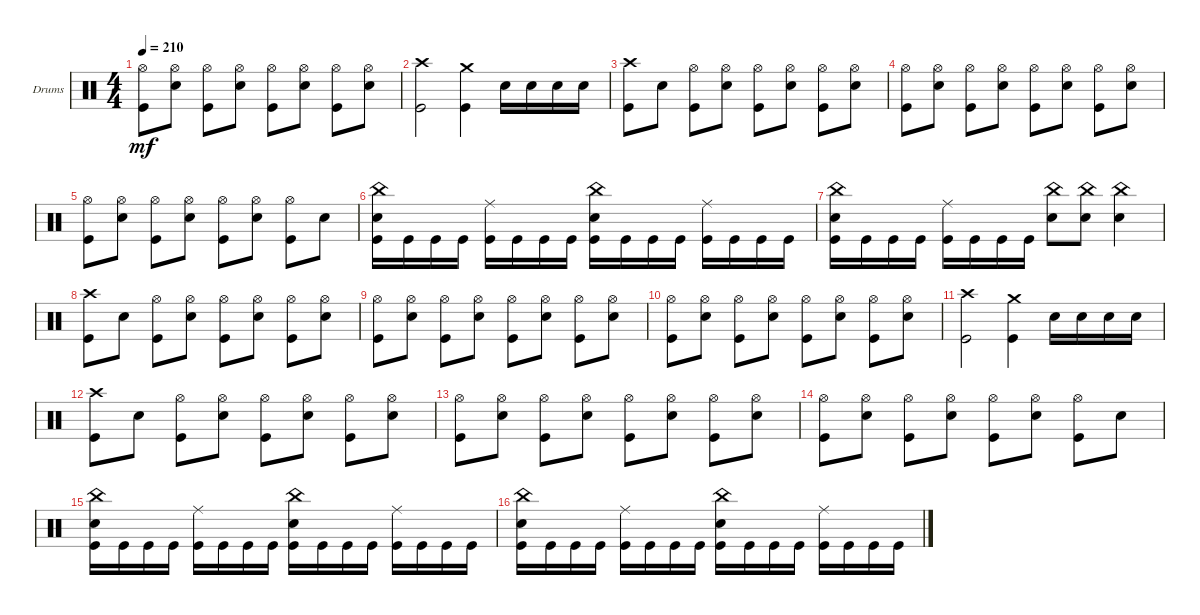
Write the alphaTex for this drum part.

\bracketExtendMode groupsimilarinstruments
\firstSystemTrackNameOrientation horizontal
\otherSystemsTrackNameOrientation horizontal
\track ("Drumkit" "Drums") {instrument percussion}
\staff {score}
\articulation defaults
\ts (4 4)
\tempo 210
\clef neutral
\ks c
("Hi-Hat (open)" "Kick (hit)").8{dy mf} ("Hi-Hat (open)" "Snare (hit) 2").8 ("Hi-Hat (open)" "Kick (hit)").8 ("Hi-Hat (open)" "Snare (hit) 2").8 ("Hi-Hat (open)" "Kick (hit)").8 ("Hi-Hat (open)" "Snare (hit) 2").8 ("Hi-Hat (open)" "Kick (hit)").8 ("Hi-Hat (open)" "Snare (hit) 2").8 |
("Kick (hit)" "Crash high (hit)").2 ("Kick (hit)" "Crash medium (hit)").4 "Snare (hit) 2".16 "Snare (hit) 2".16 "Snare (hit) 2".16 "Snare (hit) 2".16 |
("Kick (hit)" "Crash high (hit)").8 "Snare (hit) 2".8 ("Hi-Hat (open)" "Kick (hit)").8 ("Hi-Hat (open)" "Snare (hit) 2").8 ("Hi-Hat (open)" "Kick (hit)").8 ("Hi-Hat (open)" "Snare (hit) 2").8 ("Hi-Hat (open)" "Kick (hit)").8 ("Hi-Hat (open)" "Snare (hit) 2").8 |
("Hi-Hat (open)" "Kick (hit)").8 ("Hi-Hat (open)" "Snare (hit) 2").8 ("Hi-Hat (open)" "Kick (hit)").8 ("Hi-Hat (open)" "Snare (hit) 2").8 ("Hi-Hat (open)" "Kick (hit)").8 ("Hi-Hat (open)" "Snare (hit) 2").8 ("Hi-Hat (open)" "Kick (hit)").8 ("Hi-Hat (open)" "Snare (hit) 2").8 |
("Hi-Hat (open)" "Kick (hit)").8 ("Hi-Hat (open)" "Snare (hit) 2").8 ("Hi-Hat (open)" "Kick (hit)").8 ("Hi-Hat (open)" "Snare (hit) 2").8 ("Hi-Hat (open)" "Kick (hit)").8 ("Hi-Hat (open)" "Snare (hit) 2").8 ("Hi-Hat (open)" "Kick (hit)").8 "Snare (hit) 2".8 |
("Snare (hit) 2" "Kick (hit)" "China (hit)").16 "Kick (hit)".16 "Kick (hit)".16 "Kick (hit)".16 ("Kick (hit)" "Ride (middle)").16 "Kick (hit)".16 "Kick (hit)".16 "Kick (hit)".16 ("Kick (hit)" "Snare (hit) 2" "China (hit)").16 "Kick (hit)".16 "Kick (hit)".16 "Kick (hit)".16 ("Kick (hit)" "Ride (middle)").16 "Kick (hit)".16 "Kick (hit)".16 "Kick (hit)".16 |
("Snare (hit) 2" "Kick (hit)" "China (hit)").16 "Kick (hit)".16 "Kick (hit)".16 "Kick (hit)".16 ("Kick (hit)" "Ride (middle)").16 "Kick (hit)".16 "Kick (hit)".16 "Kick (hit)".16 ("Snare (hit) 2" "China (hit)").8 ("Snare (hit) 2" "China (hit)").8 ("Snare (hit) 2" "China (hit)").4 |
("Kick (hit)" "Crash high (hit)").8 "Snare (hit) 2".8 ("Hi-Hat (open)" "Kick (hit)").8 ("Hi-Hat (open)" "Snare (hit) 2").8 ("Hi-Hat (open)" "Kick (hit)").8 ("Hi-Hat (open)" "Snare (hit) 2").8 ("Hi-Hat (open)" "Kick (hit)").8 ("Hi-Hat (open)" "Snare (hit) 2").8 |
("Hi-Hat (open)" "Kick (hit)").8 ("Hi-Hat (open)" "Snare (hit) 2").8 ("Hi-Hat (open)" "Kick (hit)").8 ("Hi-Hat (open)" "Snare (hit) 2").8 ("Hi-Hat (open)" "Kick (hit)").8 ("Hi-Hat (open)" "Snare (hit) 2").8 ("Hi-Hat (open)" "Kick (hit)").8 ("Hi-Hat (open)" "Snare (hit) 2").8 |
("Hi-Hat (open)" "Kick (hit)").8 ("Hi-Hat (open)" "Snare (hit) 2").8 ("Hi-Hat (open)" "Kick (hit)").8 ("Hi-Hat (open)" "Snare (hit) 2").8 ("Hi-Hat (open)" "Kick (hit)").8 ("Hi-Hat (open)" "Snare (hit) 2").8 ("Hi-Hat (open)" "Kick (hit)").8 ("Hi-Hat (open)" "Snare (hit) 2").8 |
("Kick (hit)" "Crash high (hit)").2 ("Kick (hit)" "Crash medium (hit)").4 "Snare (hit) 2".16 "Snare (hit) 2".16 "Snare (hit) 2".16 "Snare (hit) 2".16 |
("Kick (hit)" "Crash high (hit)").8 "Snare (hit) 2".8 ("Hi-Hat (open)" "Kick (hit)").8 ("Hi-Hat (open)" "Snare (hit) 2").8 ("Hi-Hat (open)" "Kick (hit)").8 ("Hi-Hat (open)" "Snare (hit) 2").8 ("Hi-Hat (open)" "Kick (hit)").8 ("Hi-Hat (open)" "Snare (hit) 2").8 |
("Hi-Hat (open)" "Kick (hit)").8 ("Hi-Hat (open)" "Snare (hit) 2").8 ("Hi-Hat (open)" "Kick (hit)").8 ("Hi-Hat (open)" "Snare (hit) 2").8 ("Hi-Hat (open)" "Kick (hit)").8 ("Hi-Hat (open)" "Snare (hit) 2").8 ("Hi-Hat (open)" "Kick (hit)").8 ("Hi-Hat (open)" "Snare (hit) 2").8 |
("Hi-Hat (open)" "Kick (hit)").8 ("Hi-Hat (open)" "Snare (hit) 2").8 ("Hi-Hat (open)" "Kick (hit)").8 ("Hi-Hat (open)" "Snare (hit) 2").8 ("Hi-Hat (open)" "Kick (hit)").8 ("Hi-Hat (open)" "Snare (hit) 2").8 ("Hi-Hat (open)" "Kick (hit)").8 "Snare (hit) 2".8 |
("Snare (hit) 2" "Kick (hit)" "China (hit)").16 "Kick (hit)".16 "Kick (hit)".16 "Kick (hit)".16 ("Kick (hit)" "Ride (middle)").16 "Kick (hit)".16 "Kick (hit)".16 "Kick (hit)".16 ("Kick (hit)" "Snare (hit) 2" "China (hit)").16 "Kick (hit)".16 "Kick (hit)".16 "Kick (hit)".16 ("Kick (hit)" "Ride (middle)").16 "Kick (hit)".16 "Kick (hit)".16 "Kick (hit)".16 |
("Snare (hit) 2" "Kick (hit)" "China (hit)").16 "Kick (hit)".16 "Kick (hit)".16 "Kick (hit)".16 ("Kick (hit)" "Ride (middle)").16 "Kick (hit)".16 "Kick (hit)".16 "Kick (hit)".16 ("Kick (hit)" "Snare (hit) 2" "China (hit)").16 "Kick (hit)".16 "Kick (hit)".16 "Kick (hit)".16 ("Kick (hit)" "Ride (middle)").16 "Kick (hit)".16 "Kick (hit)".16 "Kick (hit)".16
